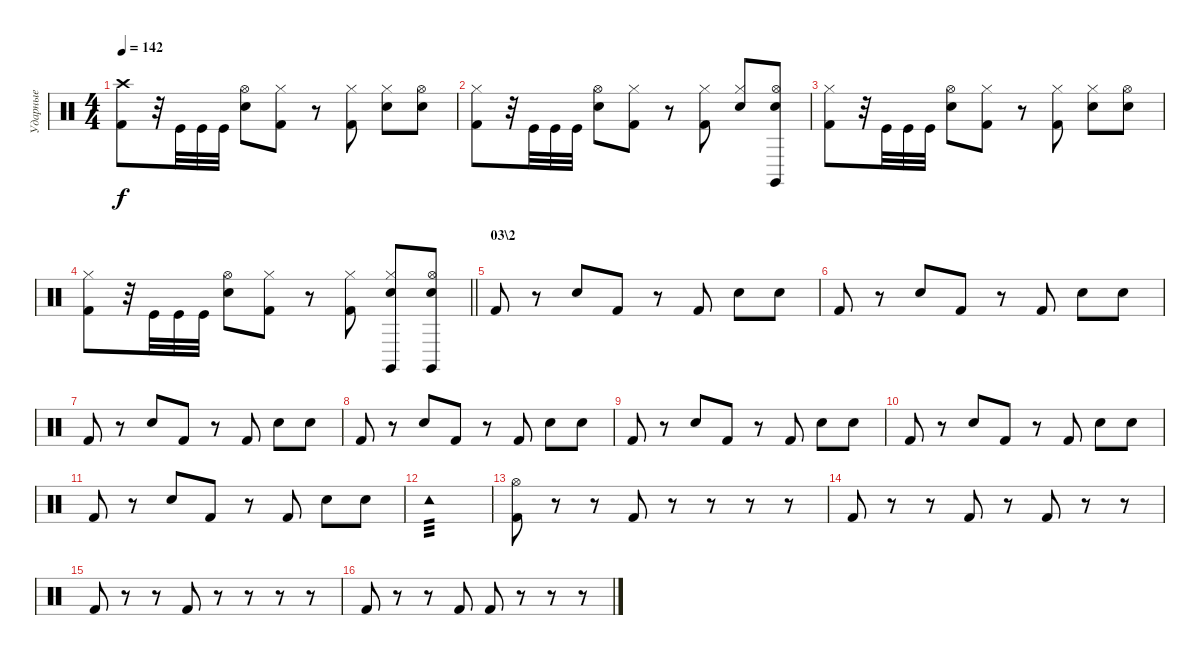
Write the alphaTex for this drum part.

\track ("Ударные" "Ударные") {instrument percussion}
\staff {score}
\articulation defaults
\ts (4 4)
\tempo 142
\clef neutral
\ks c
("Crash high (hit)" "Kick (hit) 2").8{dy f} r.32 "Kick (hit)".32 "Kick (hit)".32 "Kick (hit)".32 ("Hi-Hat (open)" "Electric Snare (hit)").8 ("Hi-Hat (closed)" "Kick (hit) 2").8 r.8 ("Hi-Hat (closed)" "Kick (hit) 2").8 ("Hi-Hat (closed)" "Electric Snare (hit)").8 ("Hi-Hat (open)" "Electric Snare (hit)").8 |
("Hi-Hat (closed)" "Kick (hit) 2").8 r.32 "Kick (hit)".32 "Kick (hit)".32 "Kick (hit)".32 ("Hi-Hat (open)" "Electric Snare (hit)").8 ("Hi-Hat (closed)" "Kick (hit) 2").8 r.8 ("Hi-Hat (closed)" "Kick (hit) 2").8 ("Hi-Hat (closed)" "Electric Snare (hit)").8 ("Claves (hit)" "Hi-Hat (open)" "Electric Snare (hit)").8 |
("Hi-Hat (closed)" "Kick (hit) 2").8 r.32 "Kick (hit)".32 "Kick (hit)".32 "Kick (hit)".32 ("Hi-Hat (open)" "Electric Snare (hit)").8 ("Hi-Hat (closed)" "Kick (hit) 2").8 r.8 ("Hi-Hat (closed)" "Kick (hit) 2").8 ("Hi-Hat (closed)" "Electric Snare (hit)").8 ("Hi-Hat (open)" "Electric Snare (hit)").8 |
\barLineRight lightlight
("Hi-Hat (closed)" "Kick (hit) 2").8 r.32 "Kick (hit)".32 "Kick (hit)".32 "Kick (hit)".32 ("Hi-Hat (open)" "Electric Snare (hit)").8 ("Hi-Hat (closed)" "Kick (hit) 2").8 r.8 ("Hi-Hat (closed)" "Kick (hit) 2").8 ("Claves (hit)" "Hi-Hat (closed)" "Electric Snare (hit)").8 ("Claves (hit)" "Hi-Hat (open)" "Electric Snare (hit)").8 |
\section ("" "03\\2")
"Kick (hit) 2".8 r.8 "Electric Snare (hit)".8 "Kick (hit) 2".8 r.8 "Kick (hit) 2".8 "Electric Snare (hit)".8 "Electric Snare (hit)".8 |
"Kick (hit) 2".8 r.8 "Electric Snare (hit)".8 "Kick (hit) 2".8 r.8 "Kick (hit) 2".8 "Electric Snare (hit)".8 "Electric Snare (hit)".8 |
"Kick (hit) 2".8 r.8 "Electric Snare (hit)".8 "Kick (hit) 2".8 r.8 "Kick (hit) 2".8 "Electric Snare (hit)".8 "Electric Snare (hit)".8 |
"Kick (hit) 2".8 r.8 "Electric Snare (hit)".8 "Kick (hit) 2".8 r.8 "Kick (hit) 2".8 "Electric Snare (hit)".8 "Electric Snare (hit)".8 |
"Kick (hit) 2".8 r.8 "Electric Snare (hit)".8 "Kick (hit) 2".8 r.8 "Kick (hit) 2".8 "Electric Snare (hit)".8 "Electric Snare (hit)".8 |
"Kick (hit) 2".8 r.8 "Electric Snare (hit)".8 "Kick (hit) 2".8 r.8 "Kick (hit) 2".8 "Electric Snare (hit)".8 "Electric Snare (hit)".8 |
"Kick (hit) 2".8 r.8 "Electric Snare (hit)".8 "Kick (hit) 2".8 r.8 "Kick (hit) 2".8 "Electric Snare (hit)".8 "Electric Snare (hit)".8 |
"Tambourine (hit)".1{tp 3} |
("Hi-Hat (open)" "Kick (hit) 2").8 r.8 r.8 "Kick (hit) 2".8 r.8 r.8 r.8 r.8 |
"Kick (hit) 2".8 r.8 r.8 "Kick (hit) 2".8 r.8 "Kick (hit) 2".8 r.8 r.8 |
"Kick (hit) 2".8 r.8 r.8 "Kick (hit) 2".8 r.8 r.8 r.8 r.8 |
"Kick (hit) 2".8 r.8 r.8 "Kick (hit) 2".8 "Kick (hit) 2".8 r.8 r.8 r.8
